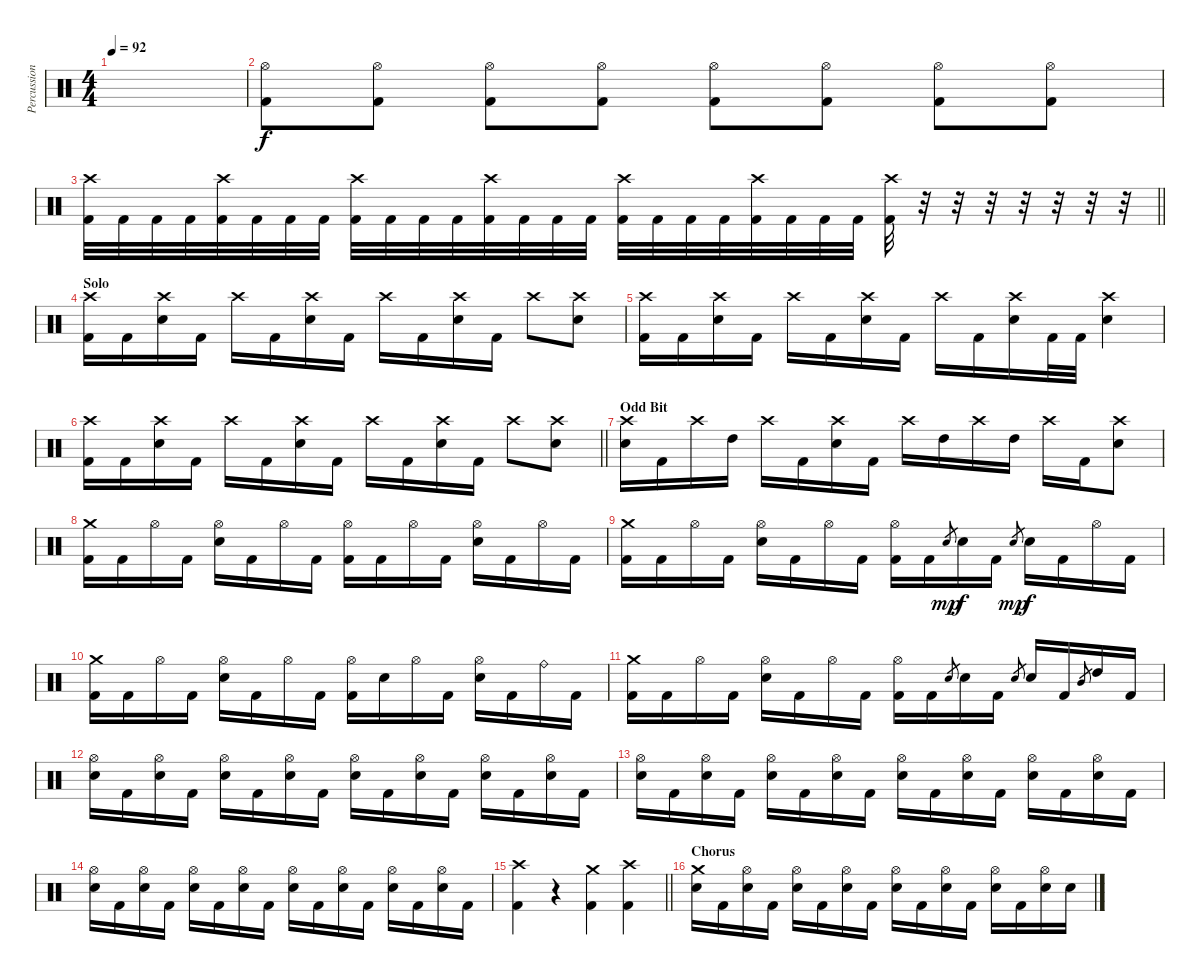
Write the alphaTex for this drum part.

\track ("Percussion" "Percussion") {solo instrument percussion}
\staff {score}
\articulation defaults
\ts (4 4)
\tempo 92
\clef neutral
\ks c
|
("Hi-Hat (open)" "Kick (hit) 2").8 ("Hi-Hat (open)" "Kick (hit) 2").8 ("Hi-Hat (open)" "Kick (hit) 2").8 ("Hi-Hat (open)" "Kick (hit) 2").8 ("Hi-Hat (open)" "Kick (hit) 2").8 ("Hi-Hat (open)" "Kick (hit) 2").8 ("Hi-Hat (open)" "Kick (hit) 2").8 ("Hi-Hat (open)" "Kick (hit) 2").8 |
\barLineRight lightlight
("Crash high (hit)" "Kick (hit) 2").32 "Kick (hit) 2".32 "Kick (hit) 2".32 "Kick (hit) 2".32 ("Crash high (hit)" "Kick (hit) 2").32 "Kick (hit) 2".32 "Kick (hit) 2".32 "Kick (hit) 2".32 ("Crash high (hit)" "Kick (hit) 2").32 "Kick (hit) 2".32 "Kick (hit) 2".32 "Kick (hit) 2".32 ("Crash high (hit)" "Kick (hit) 2").32 "Kick (hit) 2".32 "Kick (hit) 2".32 "Kick (hit) 2".32 ("Crash high (hit)" "Kick (hit) 2").32 "Kick (hit) 2".32 "Kick (hit) 2".32 "Kick (hit) 2".32 ("Crash high (hit)" "Kick (hit) 2").32 "Kick (hit) 2".32 "Kick (hit) 2".32 "Kick (hit) 2".32 ("Crash high (hit)" "Kick (hit) 2").32 r.32 r.32 r.32 r.32 r.32 r.32 r.32 |
\section ("" "Solo")
("Crash high (hit)" "Kick (hit) 2").16 "Kick (hit) 2".16 ("Crash high (hit)" "Electric Snare (hit)").16 "Kick (hit) 2".16 "Crash high (hit)".16 "Kick (hit) 2".16 ("Crash high (hit)" "Electric Snare (hit)").16 "Kick (hit) 2".16 "Crash high (hit)".16 "Kick (hit) 2".16 ("Crash high (hit)" "Electric Snare (hit)").16 "Kick (hit) 2".16 "Crash high (hit)".8 ("Crash high (hit)" "Electric Snare (hit)").8 |
("Crash high (hit)" "Kick (hit) 2").16 "Kick (hit) 2".16 ("Crash high (hit)" "Electric Snare (hit)").16 "Kick (hit) 2".16 "Crash high (hit)".16 "Kick (hit) 2".16 ("Crash high (hit)" "Electric Snare (hit)").16 "Kick (hit) 2".16 "Crash high (hit)".16 "Kick (hit) 2".16 ("Crash high (hit)" "Electric Snare (hit)").16 "Kick (hit) 2".32 "Kick (hit) 2".32 ("Crash high (hit)" "Electric Snare (hit)").4 |
\barLineRight lightlight
("Crash high (hit)" "Kick (hit) 2").16 "Kick (hit) 2".16 ("Crash high (hit)" "Electric Snare (hit)").16 "Kick (hit) 2".16 "Crash high (hit)".16 "Kick (hit) 2".16 ("Crash high (hit)" "Electric Snare (hit)").16 "Kick (hit) 2".16 "Crash high (hit)".16 "Kick (hit) 2".16 ("Crash high (hit)" "Electric Snare (hit)").16 "Kick (hit) 2".16 "Crash high (hit)".8 ("Crash high (hit)" "Electric Snare (hit)").8 |
\section ("" "Odd Bit")
("Crash high (hit)" "Electric Snare (hit)").16 "Kick (hit) 2".16 "Crash high (hit)".16 "High Tom (hit)".16 "Crash high (hit)".16 "Kick (hit) 2".16 ("Crash high (hit)" "Electric Snare (hit)").16 "Kick (hit) 2".16 "Crash high (hit)".16 "High Tom (hit)".16 "Crash high (hit)".16 "High Tom (hit)".16 "Crash high (hit)".16 "Kick (hit) 2".16 ("Crash high (hit)" "Electric Snare (hit)").8 |
("Crash medium (hit)" "Kick (hit) 2").16 "Kick (hit) 2".16 "Hi-Hat (open)".16 "Kick (hit) 2".16 ("Hi-Hat (open)" "Electric Snare (hit)").16 "Kick (hit) 2".16 "Hi-Hat (open)".16 "Kick (hit) 2".16 ("Hi-Hat (open)" "Kick (hit) 2").16 "Kick (hit) 2".16 "Hi-Hat (open)".16 "Kick (hit) 2".16 ("Hi-Hat (open)" "Electric Snare (hit)").16 "Kick (hit) 2".16 "Hi-Hat (open)".16 "Kick (hit) 2".16 |
("Crash medium (hit)" "Kick (hit) 2").16 "Kick (hit) 2".16 "Hi-Hat (open)".16 "Kick (hit) 2".16 ("Hi-Hat (open)" "Electric Snare (hit)").16 "Kick (hit) 2".16 "Hi-Hat (open)".16 "Kick (hit) 2".16 ("Hi-Hat (open)" "Kick (hit) 2").16 "Kick (hit) 2".16 "Electric Snare (hit)".8{gr dy mp} "Electric Snare (hit)".16{dy f} "Kick (hit) 2".16 "Electric Snare (hit)".8{gr dy mp} "Electric Snare (hit)".16{dy f} "Kick (hit) 2".16 "Hi-Hat (open)".16 "Kick (hit) 2".16 |
("Crash medium (hit)" "Kick (hit) 2").16 "Kick (hit) 2".16 "Hi-Hat (open)".16 "Kick (hit) 2".16 ("Hi-Hat (open)" "Electric Snare (hit)").16 "Kick (hit) 2".16 "Hi-Hat (open)".16 "Kick (hit) 2".16 ("Hi-Hat (open)" "Kick (hit) 2").16 "Electric Snare (hit)".16 "Hi-Hat (open)".16 "Kick (hit) 2".16 ("Hi-Hat (open)" "Electric Snare (hit)").16 "Kick (hit) 2".16 "Ride (bell)".16 "Kick (hit) 2".16 |
("Crash medium (hit)" "Kick (hit) 2").16 "Kick (hit) 2".16 "Hi-Hat (open)".16 "Kick (hit) 2".16 ("Hi-Hat (open)" "Electric Snare (hit)").16 "Kick (hit) 2".16 "Hi-Hat (open)".16 "Kick (hit) 2".16 ("Hi-Hat (open)" "Kick (hit) 2").16 "Kick (hit) 2".16 "Electric Snare (hit)".8{gr} "Electric Snare (hit)".16 "Kick (hit) 2".16 "Electric Snare (hit)".8{gr} "Electric Snare (hit)".16 "Kick (hit) 2".16 "Mid Tom (hit)".8{gr} "High Tom (hit)".16 "Kick (hit) 2".16 |
("Hi-Hat (open)" "Electric Snare (hit)").16{volume 6} "Kick (hit) 2".16 ("Hi-Hat (open)" "Electric Snare (hit)").16 "Kick (hit) 2".16 ("Hi-Hat (open)" "Electric Snare (hit)").16 "Kick (hit) 2".16 ("Hi-Hat (open)" "Electric Snare (hit)").16 "Kick (hit) 2".16 ("Hi-Hat (open)" "Electric Snare (hit)").16 "Kick (hit) 2".16 ("Hi-Hat (open)" "Electric Snare (hit)").16 "Kick (hit) 2".16 ("Hi-Hat (open)" "Electric Snare (hit)").16 "Kick (hit) 2".16 ("Hi-Hat (open)" "Electric Snare (hit)").16 "Kick (hit) 2".16 |
("Hi-Hat (open)" "Electric Snare (hit)").16 "Kick (hit) 2".16 ("Hi-Hat (open)" "Electric Snare (hit)").16 "Kick (hit) 2".16 ("Hi-Hat (open)" "Electric Snare (hit)").16 "Kick (hit) 2".16 ("Hi-Hat (open)" "Electric Snare (hit)").16 "Kick (hit) 2".16 ("Hi-Hat (open)" "Electric Snare (hit)").16 "Kick (hit) 2".16 ("Hi-Hat (open)" "Electric Snare (hit)").16 "Kick (hit) 2".16 ("Hi-Hat (open)" "Electric Snare (hit)").16 "Kick (hit) 2".16 ("Hi-Hat (open)" "Electric Snare (hit)").16 "Kick (hit) 2".16 |
("Hi-Hat (open)" "Electric Snare (hit)").16 "Kick (hit) 2".16 ("Hi-Hat (open)" "Electric Snare (hit)").16 "Kick (hit) 2".16 ("Hi-Hat (open)" "Electric Snare (hit)").16 "Kick (hit) 2".16 ("Hi-Hat (open)" "Electric Snare (hit)").16 "Kick (hit) 2".16 ("Hi-Hat (open)" "Electric Snare (hit)").16 "Kick (hit) 2".16 ("Hi-Hat (open)" "Electric Snare (hit)").16 "Kick (hit) 2".16 ("Hi-Hat (open)" "Electric Snare (hit)").16 "Kick (hit) 2".16 ("Hi-Hat (open)" "Electric Snare (hit)").16 "Kick (hit) 2".16 |
\barLineRight lightlight
("Crash high (hit)" "Kick (hit) 2").4{volume 13} r.4 ("Crash medium (hit)" "Kick (hit) 2").4 ("Crash high (hit)" "Kick (hit) 2").4{volume 13} |
\section ("" "Chorus")
("Crash medium (hit)" "Electric Snare (hit)").16 "Kick (hit) 2".16 ("Hi-Hat (open)" "Electric Snare (hit)").16 "Kick (hit) 2".16 ("Hi-Hat (open)" "Electric Snare (hit)").16 "Kick (hit) 2".16 ("Hi-Hat (open)" "Electric Snare (hit)").16 "Kick (hit) 2".16 ("Hi-Hat (open)" "Electric Snare (hit)").16 "Kick (hit) 2".16 ("Hi-Hat (open)" "Electric Snare (hit)").16 "Kick (hit) 2".16 ("Hi-Hat (open)" "Electric Snare (hit)").16 "Kick (hit) 2".16 ("Hi-Hat (open)" "Electric Snare (hit)").16 "Electric Snare (hit)".16
